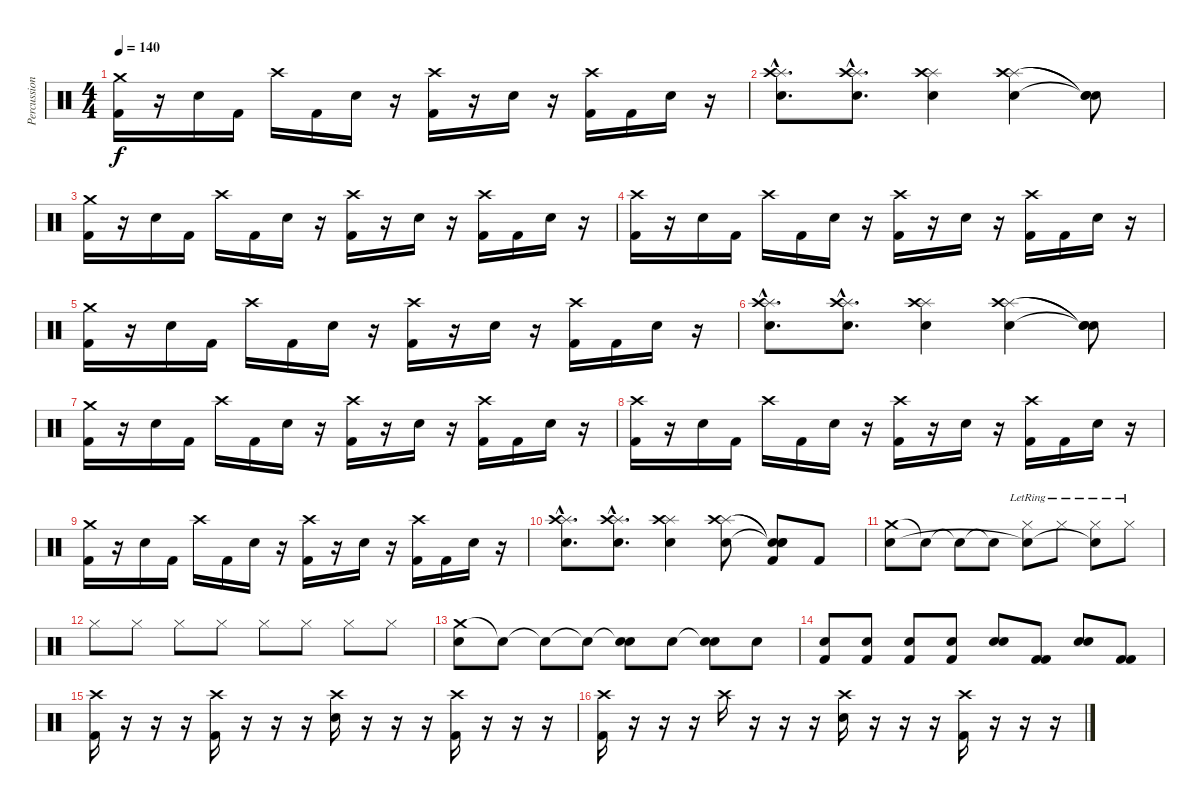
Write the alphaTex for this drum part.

\track ("Percussion" "Percussion") {instrument percussion}
\staff {score}
\articulation defaults
\ts (4 4)
\tempo 140
\clef neutral
\ks c
("Crash medium (hit)" "Kick (hit) 2").16{dy f} r.16 "Electric Snare (hit)".16 "Kick (hit) 2".16 "Crash high (hit)".16 "Kick (hit) 2".16 "Electric Snare (hit)".16 r.16 ("Crash high (hit)" "Kick (hit) 2").16 r.16 "Electric Snare (hit)".16 r.16 ("Crash high (hit)" "Kick (hit) 2").16 "Kick (hit) 2".16 "Electric Snare (hit)".16 r.16 |
("Splash (hit)"{hac} "Crash high (hit)"{hac} "Electric Snare (hit)"{hac}).8{d} ("Splash (hit)"{hac} "Crash high (hit)"{hac} "Electric Snare (hit)"{hac}).8{d} ("Splash (hit)" "Crash high (hit)" "Electric Snare (hit)").4 ("Splash (hit)" "Crash high (hit)" "Electric Snare (hit)").4 ("Snare (hit)"{t} "Snare (hit)"{t} "Snare (hit)"{t}).8 |
("Crash medium (hit)" "Kick (hit) 2").16 r.16 "Electric Snare (hit)".16 "Kick (hit) 2".16 "Crash high (hit)".16 "Kick (hit) 2".16 "Electric Snare (hit)".16 r.16 ("Crash high (hit)" "Kick (hit) 2").16 r.16 "Electric Snare (hit)".16 r.16 ("Crash high (hit)" "Kick (hit) 2").16 "Kick (hit) 2".16 "Electric Snare (hit)".16 r.16 |
("Crash high (hit)" "Kick (hit) 2").16 r.16 "Electric Snare (hit)".16 "Kick (hit) 2".16 "Crash high (hit)".16 "Kick (hit) 2".16 "Electric Snare (hit)".16 r.16 ("Crash high (hit)" "Kick (hit) 2").16 r.16 "Electric Snare (hit)".16 r.16 ("Crash high (hit)" "Kick (hit) 2").16 "Kick (hit) 2".16 "Electric Snare (hit)".16 r.16 |
("Crash medium (hit)" "Kick (hit) 2").16 r.16 "Electric Snare (hit)".16 "Kick (hit) 2".16 "Crash high (hit)".16 "Kick (hit) 2".16 "Electric Snare (hit)".16 r.16 ("Crash high (hit)" "Kick (hit) 2").16 r.16 "Electric Snare (hit)".16 r.16 ("Crash high (hit)" "Kick (hit) 2").16 "Kick (hit) 2".16 "Electric Snare (hit)".16 r.16 |
("Splash (hit)"{hac} "Crash high (hit)"{hac} "Electric Snare (hit)"{hac}).8{d} ("Splash (hit)"{hac} "Crash high (hit)"{hac} "Electric Snare (hit)"{hac}).8{d} ("Splash (hit)" "Crash high (hit)" "Electric Snare (hit)").4 ("Splash (hit)" "Crash high (hit)" "Electric Snare (hit)").4 ("Snare (hit)"{t} "Snare (hit)"{t} "Snare (hit)"{t}).8 |
("Crash medium (hit)" "Kick (hit) 2").16 r.16 "Electric Snare (hit)".16 "Kick (hit) 2".16 "Crash high (hit)".16 "Kick (hit) 2".16 "Electric Snare (hit)".16 r.16 ("Crash high (hit)" "Kick (hit) 2").16 r.16 "Electric Snare (hit)".16 r.16 ("Crash high (hit)" "Kick (hit) 2").16 "Kick (hit) 2".16 "Electric Snare (hit)".16 r.16 |
("Crash high (hit)" "Kick (hit) 2").16 r.16 "Electric Snare (hit)".16 "Kick (hit) 2".16 "Crash high (hit)".16 "Kick (hit) 2".16 "Electric Snare (hit)".16 r.16 ("Crash high (hit)" "Kick (hit) 2").16 r.16 "Electric Snare (hit)".16 r.16 ("Crash high (hit)" "Kick (hit) 2").16 "Kick (hit) 2".16 "Electric Snare (hit)".16 r.16 |
("Crash medium (hit)" "Kick (hit) 2").16 r.16 "Electric Snare (hit)".16 "Kick (hit) 2".16 "Crash high (hit)".16 "Kick (hit) 2".16 "Electric Snare (hit)".16 r.16 ("Crash high (hit)" "Kick (hit) 2").16 r.16 "Electric Snare (hit)".16 r.16 ("Crash high (hit)" "Kick (hit) 2").16 "Kick (hit) 2".16 "Electric Snare (hit)".16 r.16 |
("Splash (hit)"{hac} "Crash high (hit)"{hac} "Electric Snare (hit)"{hac}).8{d} ("Splash (hit)"{hac} "Crash high (hit)"{hac} "Electric Snare (hit)"{hac}).8{d} ("Splash (hit)" "Crash high (hit)" "Electric Snare (hit)").4 ("Splash (hit)" "Crash high (hit)" "Electric Snare (hit)").8 ("Snare (hit)"{t} "Snare (hit)"{t} "Snare (hit)"{t} "Kick (hit) 2").8 "Kick (hit) 2".8 |
("Crash medium (hit)" "Electric Snare (hit)").8 "Snare (hit)"{t}.8 "Snare (hit)"{t}.8 "Snare (hit)"{t}.8 ("Hi-Hat (closed)"{lr} "Snare (hit)"{t}).8 "Hi-Hat (closed)"{lr}.8 ("Hi-Hat (closed)"{lr} "Snare (hit)"{t}).8 "Hi-Hat (closed)"{lr}.8 |
"Hi-Hat (closed)".8 "Hi-Hat (closed)".8 "Hi-Hat (closed)".8 "Hi-Hat (closed)".8 "Hi-Hat (closed)".8 "Hi-Hat (closed)".8 "Hi-Hat (closed)".8 "Hi-Hat (closed)".8 |
("Crash medium (hit)" "Electric Snare (hit)").8 "Snare (hit)"{t}.8 "Snare (hit)"{t}.8 "Snare (hit)"{t}.8 ("Snare (hit)"{t} "Electric Snare (hit)").8 "Electric Snare (hit)".8 ("Snare (hit)"{t} "Electric Snare (hit)").8 "Electric Snare (hit)".8 |
("Electric Snare (hit)" "Kick (hit) 2").8 ("Electric Snare (hit)" "Kick (hit) 2").8 ("Electric Snare (hit)" "Kick (hit) 2").8 ("Electric Snare (hit)" "Kick (hit) 2").8 ("Electric Snare (hit)" "Electric Snare (hit)").8 ("Kick (hit) 2" "Kick (hit) 2").8 ("Electric Snare (hit)" "Electric Snare (hit)").8 ("Kick (hit) 2" "Kick (hit) 2").8 |
("Crash high (hit)" "Kick (hit) 2").16 r.16 r.16 r.16 ("Crash high (hit)" "Kick (hit) 2").16 r.16 r.16 r.16 ("Crash high (hit)" "Electric Snare (hit)").16 r.16 r.16 r.16 ("Crash high (hit)" "Kick (hit) 2").16 r.16 r.16 r.16 |
("Crash high (hit)" "Kick (hit) 2").16 r.16 r.16 r.16 "Crash high (hit)".16 r.16 r.16 r.16 ("Crash high (hit)" "Electric Snare (hit)").16 r.16 r.16 r.16 ("Crash high (hit)" "Kick (hit) 2").16 r.16 r.16 r.16
